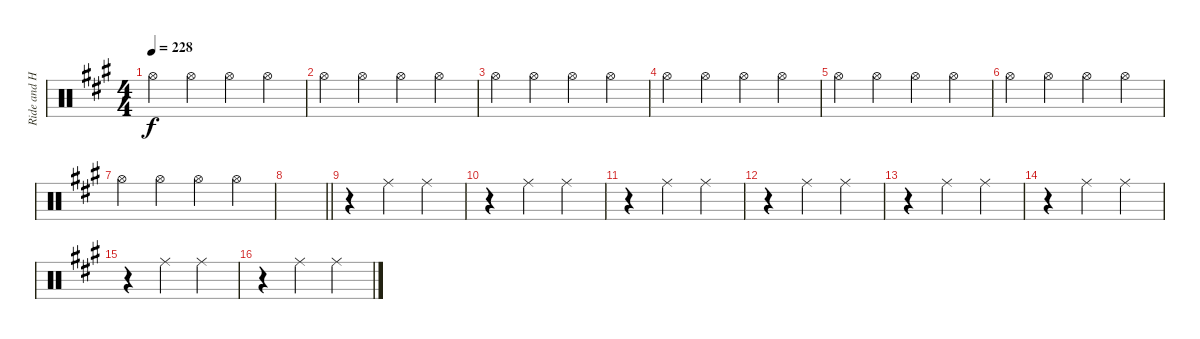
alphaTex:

\track ("Ride and Hi Hat" "Ride and H") {instrument percussion}
\staff {score}
\articulation defaults
\ts (4 4)
\tempo 228
\clef neutral
\ks a "Hi-Hat (open)".4{dy f} "Hi-Hat (open)".4 "Hi-Hat (open)".4 "Hi-Hat (open)".4
|
"Hi-Hat (open)".4 "Hi-Hat (open)".4 "Hi-Hat (open)".4 "Hi-Hat (open)".4 |
"Hi-Hat (open)".4 "Hi-Hat (open)".4 "Hi-Hat (open)".4 "Hi-Hat (open)".4 |
"Hi-Hat (open)".4 "Hi-Hat (open)".4 "Hi-Hat (open)".4 "Hi-Hat (open)".4 |
"Hi-Hat (open)".4 "Hi-Hat (open)".4 "Hi-Hat (open)".4 "Hi-Hat (open)".4 |
"Hi-Hat (open)".4 "Hi-Hat (open)".4 "Hi-Hat (open)".4 "Hi-Hat (open)".4 |
"Hi-Hat (open)".4 "Hi-Hat (open)".4 "Hi-Hat (open)".4 "Hi-Hat (open)".4 |
\barLineRight lightlight
|
r.4 "Ride (middle)".4 "Ride (middle)".4 |
r.4 "Ride (middle)".4 "Ride (middle)".4 |
r.4 "Ride (middle)".4 "Ride (middle)".4 |
r.4 "Ride (middle)".4 "Ride (middle)".4 |
r.4 "Ride (middle)".4 "Ride (middle)".4 |
r.4 "Ride (middle)".4 "Ride (middle)".4 |
r.4 "Ride (middle)".4 "Ride (middle)".4 |
r.4 "Ride (middle)".4 "Ride (middle)".4
